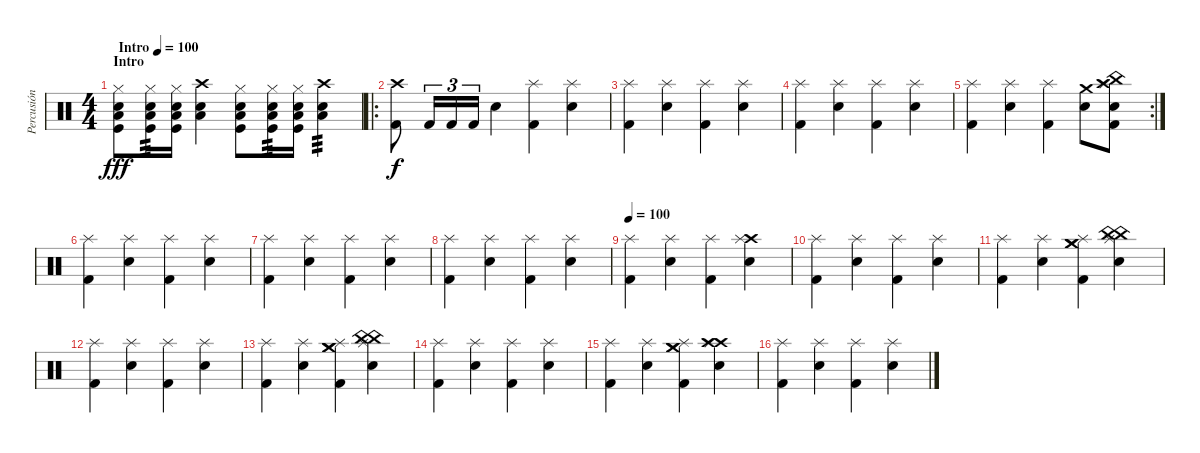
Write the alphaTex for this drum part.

\track ("Percusión" "Percusión") {instrument percussion}
\staff {score}
\articulation defaults
\ts (4 4)
\section ("" "Intro")
\tempo (100 "Intro")
\clef neutral
\ks c
("Hi-Hat (closed)" "Snare (hit) 2" "Low Floor Tom (hit)" "Kick (hit)").8{dy fff} ("Hi-Hat (closed)" "Snare (hit) 2" "Low Floor Tom (hit)" "Kick (hit)").16{tp 3} ("Hi-Hat (closed)" "Snare (hit) 2" "Low Floor Tom (hit)" "Kick (hit)").16 ("Low Floor Tom (hit)" "Electric Snare (hit)" "Crash high (hit)").4 ("Hi-Hat (closed)" "Snare (hit) 2" "Low Floor Tom (hit)" "Kick (hit)").8 ("Hi-Hat (closed)" "Snare (hit) 2" "Low Floor Tom (hit)" "Kick (hit)").16{tp 3} ("Hi-Hat (closed)" "Snare (hit) 2" "Low Floor Tom (hit)" "Kick (hit)").16 ("Low Floor Tom (hit)" "Electric Snare (hit)" "Crash high (hit)").4{tp 3} |
\ro
("Crash high (hit)" "Kick (hit) 2").8{dy f} "Kick (hit) 2".16{tu (3 2)} "Kick (hit) 2".16{tu (3 2)} "Kick (hit) 2".16{tu (3 2)} "Snare (hit) 2".4 ("Splash (hit)" "Kick (hit) 2").4 ("Splash (hit)" "Snare (hit) 2").4 |
("Splash (hit)" "Kick (hit) 2").4 ("Splash (hit)" "Snare (hit) 2").4 ("Splash (hit)" "Kick (hit) 2").4 ("Splash (hit)" "Snare (hit) 2").4 |
("Splash (hit)" "Kick (hit) 2").4 ("Splash (hit)" "Snare (hit) 2").4 ("Splash (hit)" "Kick (hit) 2").4 ("Splash (hit)" "Snare (hit) 2").4 |
\rc 2
("Splash (hit)" "Kick (hit) 2").4 ("Splash (hit)" "Snare (hit) 2").4 ("Splash (hit)" "Kick (hit) 2").4 ("Crash medium (hit)" "Snare (hit) 2").8 ("Crash high (hit)" "Splash (hit)" "China (hit)" "Kick (hit) 2" "Snare (hit) 2").8 |
("Splash (hit)" "Kick (hit) 2").4 ("Splash (hit)" "Snare (hit) 2").4 ("Splash (hit)" "Kick (hit) 2").4 ("Splash (hit)" "Snare (hit) 2").4 |
("Splash (hit)" "Kick (hit) 2").4 ("Splash (hit)" "Snare (hit) 2").4 ("Splash (hit)" "Kick (hit) 2").4 ("Splash (hit)" "Snare (hit) 2").4 |
("Splash (hit)" "Kick (hit) 2").4 ("Splash (hit)" "Snare (hit) 2").4 ("Splash (hit)" "Kick (hit) 2").4 ("Splash (hit)" "Snare (hit) 2").4 |
\tempo 100
("Splash (hit)" "Kick (hit) 2").4 ("Splash (hit)" "Snare (hit) 2").4 ("Splash (hit)" "Kick (hit) 2").4 ("Crash high (hit)" "Splash (hit)" "Snare (hit) 2").4 |
("Splash (hit)" "Kick (hit) 2").4 ("Splash (hit)" "Snare (hit) 2").4 ("Splash (hit)" "Kick (hit) 2").4 ("Splash (hit)" "Snare (hit) 2").4 |
("Splash (hit)" "Kick (hit) 2").4 ("Splash (hit)" "Snare (hit) 2").4 ("Crash medium (hit)" "Crash medium (hit)" "Splash (hit)" "Kick (hit) 2").4 ("China (hit)" "China (hit)" "Splash (hit)" "Snare (hit) 2").4 |
("Splash (hit)" "Kick (hit) 2").4 ("Splash (hit)" "Snare (hit) 2").4 ("Splash (hit)" "Kick (hit) 2").4 ("Splash (hit)" "Snare (hit) 2").4 |
("Splash (hit)" "Kick (hit) 2").4 ("Splash (hit)" "Snare (hit) 2").4 ("Crash medium (hit)" "Crash medium (hit)" "Splash (hit)" "Kick (hit) 2").4 ("China (hit)" "China (hit)" "Splash (hit)" "Snare (hit) 2").4 |
("Splash (hit)" "Kick (hit) 2").4 ("Splash (hit)" "Snare (hit) 2").4 ("Splash (hit)" "Kick (hit) 2").4 ("Splash (hit)" "Snare (hit) 2").4 |
("Splash (hit)" "Kick (hit) 2").4 ("Splash (hit)" "Snare (hit) 2").4 ("Crash medium (hit)" "Crash medium (hit)" "Splash (hit)" "Kick (hit) 2").4 ("Crash high (hit)" "Crash high (hit)" "Splash (hit)" "Snare (hit) 2").4 |
("Splash (hit)" "Kick (hit) 2").4 ("Splash (hit)" "Snare (hit) 2").4 ("Splash (hit)" "Kick (hit) 2").4 ("Splash (hit)" "Snare (hit) 2").4
